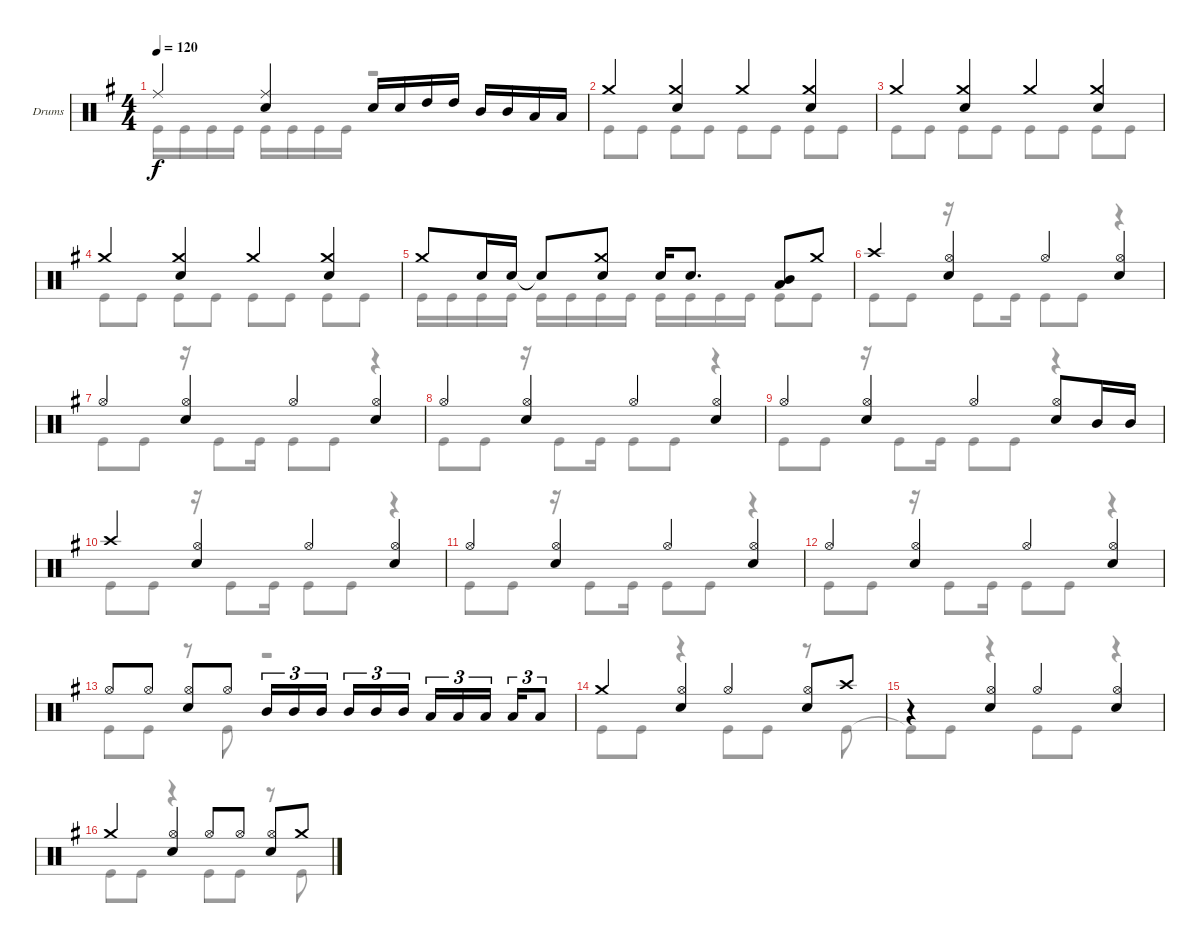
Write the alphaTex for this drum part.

\bracketExtendMode groupsimilarinstruments
\firstSystemTrackNameOrientation horizontal
\otherSystemsTrackNameOrientation horizontal
\track ("Drumkit" "Drums") {mute instrument percussion}
\staff {score}
\articulation defaults
\voice
\ts (4 4)
\tempo 120
\clef neutral
\ks eminor "Ride (middle)".4{dy f}
("Ride (middle)" "Snare (hit) 2").4 "Snare (hit) 2".16 "Snare (hit) 2".16 "High Tom (hit)".16 "High Tom (hit)".16 "Mid Tom (hit)".16 "Mid Tom (hit)".16 "Low Tom (hit)".16 "Low Tom (hit)".16 |
"Crash medium (hit)".4 ("Crash medium (hit)" "Snare (hit) 2").4 "Crash medium (hit)".4 ("Crash medium (hit)" "Snare (hit) 2").4 |
"Crash medium (hit)".4 ("Crash medium (hit)" "Snare (hit) 2").4 "Crash medium (hit)".4 ("Crash medium (hit)" "Snare (hit) 2").4 |
"Crash medium (hit)".4 ("Crash medium (hit)" "Snare (hit) 2").4 "Crash medium (hit)".4 ("Crash medium (hit)" "Snare (hit) 2").4 |
"Crash medium (hit)".8 "Snare (hit) 2".16 "Snare (hit) 2".16 "Snare (hit) 2"{t}.8 ("Crash medium (hit)" "Snare (hit) 2").8 "Snare (hit) 2".16 "Snare (hit) 2".8{d} ("Mid Tom (hit)" "Low Tom (hit)").8 "Crash medium (hit)".8 |
"Crash high (hit)".4 ("Hi-Hat (open)" "Snare (hit) 2").4 "Hi-Hat (open)".4 ("Hi-Hat (open)" "Snare (hit) 2").4 |
"Hi-Hat (open)".4 ("Hi-Hat (open)" "Snare (hit) 2").4 "Hi-Hat (open)".4 ("Hi-Hat (open)" "Snare (hit) 2").4 |
"Hi-Hat (open)".4 ("Hi-Hat (open)" "Snare (hit) 2").4 "Hi-Hat (open)".4 ("Hi-Hat (open)" "Snare (hit) 2").4 |
"Hi-Hat (open)".4 ("Hi-Hat (open)" "Snare (hit) 2").4 "Hi-Hat (open)".4 ("Hi-Hat (open)" "Snare (hit) 2").8 "Mid Tom (hit)".16 "Mid Tom (hit)".16 |
"Crash high (hit)".4 ("Hi-Hat (open)" "Snare (hit) 2").4 "Hi-Hat (open)".4 ("Hi-Hat (open)" "Snare (hit) 2").4 |
"Hi-Hat (open)".4 ("Hi-Hat (open)" "Snare (hit) 2").4 "Hi-Hat (open)".4 ("Hi-Hat (open)" "Snare (hit) 2").4 |
"Hi-Hat (open)".4 ("Hi-Hat (open)" "Snare (hit) 2").4 "Hi-Hat (open)".4 ("Hi-Hat (open)" "Snare (hit) 2").4 |
"Hi-Hat (open)".8 "Hi-Hat (open)".8 ("Hi-Hat (open)" "Snare (hit) 2").8 "Hi-Hat (open)".8 "Mid Tom (hit)".16{tu (3 2)} "Mid Tom (hit)".16{tu (3 2)} "Mid Tom (hit)".16{tu (3 2)} "Mid Tom (hit)".16{tu (3 2)} "Mid Tom (hit)".16{tu (3 2)} "Mid Tom (hit)".16{tu (3 2)} "Low Tom (hit)".16{tu (3 2)} "Low Tom (hit)".16{tu (3 2)} "Low Tom (hit)".16{tu (3 2)} "Low Tom (hit)".16{tu (3 2)} "Low Tom (hit)".8{tu (3 2)} |
"Crash medium (hit)".4 ("Hi-Hat (open)" "Snare (hit) 2").4 "Hi-Hat (open)".4 ("Hi-Hat (open)" "Snare (hit) 2").8 "Crash high (hit)".8 |
r.4 ("Hi-Hat (open)" "Snare (hit) 2").4 "Hi-Hat (open)".4 ("Hi-Hat (open)" "Snare (hit) 2").4 |
"Crash medium (hit)".4 ("Hi-Hat (open)" "Snare (hit) 2").4 "Hi-Hat (open)".8 "Hi-Hat (open)".8 ("Hi-Hat (open)" "Snare (hit) 2").8 "Crash medium (hit)".8
\voice
\clef neutral
\ottava regular
\simile none
\ks eminor "Kick (hit)".16{dy f} "Kick (hit)".16 "Kick (hit)".16 "Kick (hit)".16 "Kick (hit)".16 "Kick (hit)".16 "Kick (hit)".16 "Kick (hit)".16
r.2 |
"Kick (hit)".8 "Kick (hit)".8 "Kick (hit)".8 "Kick (hit)".8 "Kick (hit)".8 "Kick (hit)".8 "Kick (hit)".8 "Kick (hit)".8 |
"Kick (hit)".8 "Kick (hit)".8 "Kick (hit)".8 "Kick (hit)".8 "Kick (hit)".8 "Kick (hit)".8 "Kick (hit)".8 "Kick (hit)".8 |
"Kick (hit)".8 "Kick (hit)".8 "Kick (hit)".8 "Kick (hit)".8 "Kick (hit)".8 "Kick (hit)".8 "Kick (hit)".8 "Kick (hit)".8 |
"Kick (hit)".16 "Kick (hit)".16 "Kick (hit)".16 "Kick (hit)".16 "Kick (hit)".16 "Kick (hit)".16 "Kick (hit)".16 "Kick (hit)".16 "Kick (hit)".16 "Kick (hit)".16 "Kick (hit)".16 "Kick (hit)".16 "Kick (hit)".8 "Kick (hit)".8 |
"Kick (hit)".8 "Kick (hit)".8 r.16 "Kick (hit)".8 "Kick (hit)".16 "Kick (hit)".8 "Kick (hit)".8 r.4 |
"Kick (hit)".8 "Kick (hit)".8 r.16 "Kick (hit)".8 "Kick (hit)".16 "Kick (hit)".8 "Kick (hit)".8 r.4 |
"Kick (hit)".8 "Kick (hit)".8 r.16 "Kick (hit)".8 "Kick (hit)".16 "Kick (hit)".8 "Kick (hit)".8 r.4 |
"Kick (hit)".8 "Kick (hit)".8 r.16 "Kick (hit)".8 "Kick (hit)".16 "Kick (hit)".8 "Kick (hit)".8 r.4 |
"Kick (hit)".8 "Kick (hit)".8 r.16 "Kick (hit)".8 "Kick (hit)".16 "Kick (hit)".8 "Kick (hit)".8 r.4 |
"Kick (hit)".8 "Kick (hit)".8 r.16 "Kick (hit)".8 "Kick (hit)".16 "Kick (hit)".8 "Kick (hit)".8 r.4 |
"Kick (hit)".8 "Kick (hit)".8 r.16 "Kick (hit)".8 "Kick (hit)".16 "Kick (hit)".8 "Kick (hit)".8 r.4 |
"Kick (hit)".8 "Kick (hit)".8 r.8 "Kick (hit)".8 r.2 |
"Kick (hit)".8 "Kick (hit)".8 r.4 "Kick (hit)".8 "Kick (hit)".8 r.8 "Kick (hit)".8 |
"Kick (hit)"{t}.8 "Kick (hit)".8 r.4 "Kick (hit)".8 "Kick (hit)".8 r.4 |
"Kick (hit)".8 "Kick (hit)".8 r.4 "Kick (hit)".8 "Kick (hit)".8 r.8 "Kick (hit)".8
